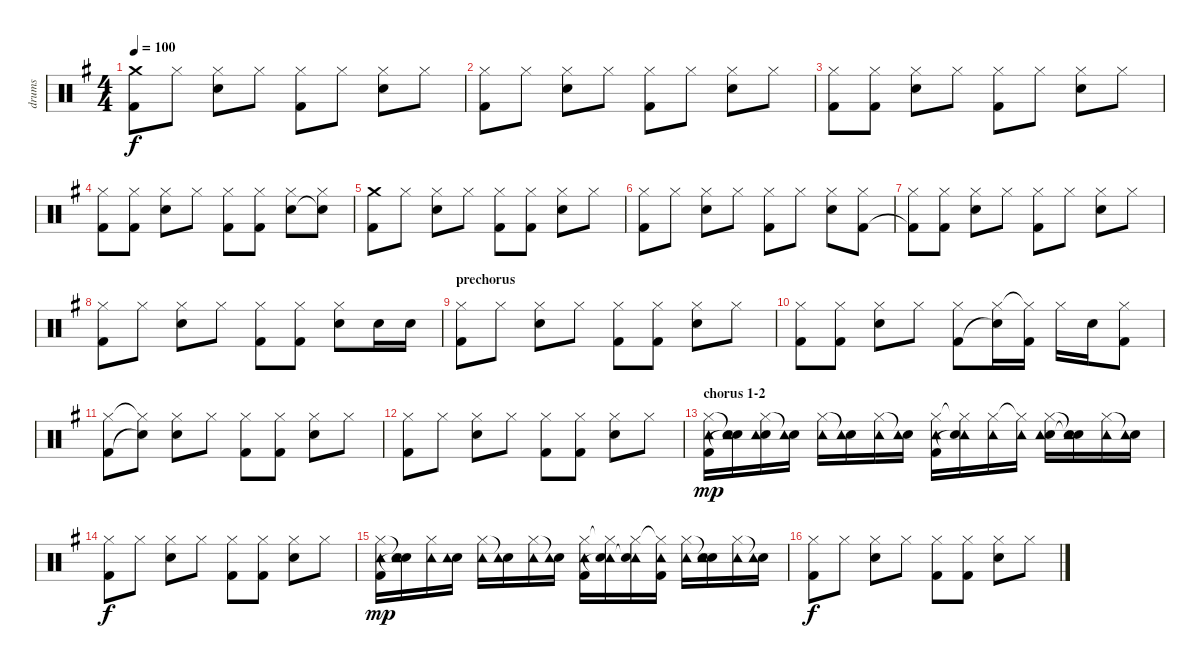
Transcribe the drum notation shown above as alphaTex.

\track ("drums" "drums") {instrument percussion}
\staff {score}
\articulation defaults
\ts (4 4)
\tempo 100
\clef neutral
\ks g
("Crash medium (hit)" "Kick (hit) 2").8{dy f} "Hi-Hat (closed)".8 ("Hi-Hat (closed)" "Snare (hit) 2").8 "Hi-Hat (closed)".8 ("Hi-Hat (closed)" "Kick (hit) 2").8 "Hi-Hat (closed)".8 ("Hi-Hat (closed)" "Snare (hit) 2").8 "Hi-Hat (closed)".8 |
("Hi-Hat (closed)" "Kick (hit) 2").8 "Hi-Hat (closed)".8 ("Hi-Hat (closed)" "Snare (hit) 2").8 "Hi-Hat (closed)".8 ("Hi-Hat (closed)" "Kick (hit) 2").8 "Hi-Hat (closed)".8 ("Hi-Hat (closed)" "Snare (hit) 2").8 "Hi-Hat (closed)".8 |
("Hi-Hat (closed)" "Kick (hit) 2").8 ("Hi-Hat (closed)" "Kick (hit) 2").8 ("Hi-Hat (closed)" "Snare (hit) 2").8 "Hi-Hat (closed)".8 ("Hi-Hat (closed)" "Kick (hit) 2").8 "Hi-Hat (closed)".8 ("Hi-Hat (closed)" "Snare (hit) 2").8 "Hi-Hat (closed)".8 |
("Hi-Hat (closed)" "Kick (hit) 2").8 ("Hi-Hat (closed)" "Kick (hit) 2").8 ("Hi-Hat (closed)" "Snare (hit) 2").8 "Hi-Hat (closed)".8 ("Hi-Hat (closed)" "Kick (hit) 2").8 ("Hi-Hat (closed)" "Kick (hit) 2").8 ("Hi-Hat (closed)" "Snare (hit) 2").8 ("Hi-Hat (closed)" "Snare (hit)"{t}).8 |
("Crash medium (hit)" "Kick (hit) 2").8 "Hi-Hat (closed)".8 ("Hi-Hat (closed)" "Snare (hit) 2").8 "Hi-Hat (closed)".8 ("Hi-Hat (closed)" "Kick (hit) 2").8 ("Hi-Hat (closed)" "Kick (hit) 2").8 ("Hi-Hat (closed)" "Snare (hit) 2").8 "Hi-Hat (closed)".8 |
("Hi-Hat (closed)" "Kick (hit) 2").8 "Hi-Hat (closed)".8 ("Hi-Hat (closed)" "Snare (hit) 2").8 "Hi-Hat (closed)".8 ("Hi-Hat (closed)" "Kick (hit) 2").8 "Hi-Hat (closed)".8 ("Hi-Hat (closed)" "Snare (hit) 2").8 ("Hi-Hat (closed)" "Kick (hit) 2").8 |
("Hi-Hat (closed)" "Kick (hit) 2"{t}).8 ("Hi-Hat (closed)" "Kick (hit) 2").8 ("Hi-Hat (closed)" "Snare (hit) 2").8 "Hi-Hat (closed)".8 ("Hi-Hat (closed)" "Kick (hit) 2").8 "Hi-Hat (closed)".8 ("Hi-Hat (closed)" "Snare (hit) 2").8 "Hi-Hat (closed)".8 |
("Hi-Hat (closed)" "Kick (hit) 2").8 "Hi-Hat (closed)".8 ("Hi-Hat (closed)" "Snare (hit) 2").8 "Hi-Hat (closed)".8 ("Hi-Hat (closed)" "Kick (hit) 2").8 ("Hi-Hat (closed)" "Kick (hit) 2").8 ("Hi-Hat (closed)" "Snare (hit) 2").8 "Snare (hit) 2".16 "Snare (hit) 2".16 |
\section ("" "prechorus")
("Hi-Hat (closed)" "Kick (hit) 2").8 "Hi-Hat (closed)".8 ("Hi-Hat (closed)" "Snare (hit) 2").8 "Hi-Hat (closed)".8 ("Hi-Hat (closed)" "Kick (hit) 2").8 ("Hi-Hat (closed)" "Kick (hit) 2").8 ("Hi-Hat (closed)" "Snare (hit) 2").8 "Hi-Hat (closed)".8 |
("Hi-Hat (closed)" "Kick (hit) 2").8 ("Hi-Hat (closed)" "Kick (hit) 2").8 ("Hi-Hat (closed)" "Snare (hit) 2").8 "Hi-Hat (closed)".8 ("Hi-Hat (closed)" "Kick (hit) 2").8 ("Hi-Hat (closed)" "Snare (hit)"{t}).16 ("Hi-Hat (closed)"{t} "Kick (hit) 2").16 "Hi-Hat (closed)".16 "Snare (hit) 2".16 ("Hi-Hat (closed)" "Kick (hit) 2").8 |
("Hi-Hat (closed)" "Kick (hit) 2").8 ("Hi-Hat (closed)"{t} "Snare (hit)"{t}).8 ("Hi-Hat (closed)" "Snare (hit) 2").8 "Hi-Hat (closed)".8 ("Hi-Hat (closed)" "Kick (hit) 2").8 ("Hi-Hat (closed)" "Kick (hit) 2").8 ("Hi-Hat (closed)" "Snare (hit) 2").8 "Hi-Hat (closed)".8 |
("Hi-Hat (closed)" "Kick (hit) 2").8 "Hi-Hat (closed)".8 ("Hi-Hat (closed)" "Snare (hit) 2").8 "Hi-Hat (closed)".8 ("Hi-Hat (closed)" "Kick (hit) 2").8 ("Hi-Hat (closed)" "Kick (hit) 2").8 ("Hi-Hat (closed)" "Snare (hit) 2").8 "Hi-Hat (closed)".8 |
\section ("" "chorus 1-2")
("Hi-Hat (closed)" "Tambourine (hit)" "Kick (hit) 2").16{dy mp} ("Snare (hit)"{t} "Tambourine (hit)" "Snare (hit)"{t}).16 ("Hi-Hat (closed)" "Snare (hit) 2" "Tambourine (hit)").16 ("Snare (hit) 2"{t} "Tambourine (hit)").16 ("Hi-Hat (closed)" "Tambourine (hit)").16 ("Snare (hit)"{t} "Tambourine (hit)").16 ("Hi-Hat (closed)" "Tambourine (hit)").16 ("Snare (hit)"{t} "Tambourine (hit)").16 ("Hi-Hat (closed)" "Tambourine (hit)" "Kick (hit) 2").16 ("Hi-Hat (closed)"{t} "Tambourine (hit)" "Snare (hit)"{t}).16 ("Hi-Hat (closed)" "Tambourine (hit)").16 ("Hi-Hat (closed)"{t} "Tambourine (hit)").16 ("Hi-Hat (closed)" "Snare (hit) 2" "Tambourine (hit)").16 ("Snare (hit)"{t} "Snare (hit)"{t} "Tambourine (hit)").16 ("Hi-Hat (closed)" "Tambourine (hit)").16 ("Snare (hit)"{t} "Tambourine (hit)").16 |
("Hi-Hat (closed)" "Kick (hit) 2").8{dy f} "Hi-Hat (closed)".8 ("Hi-Hat (closed)" "Snare (hit) 2").8 "Hi-Hat (closed)".8 ("Hi-Hat (closed)" "Kick (hit) 2").8 ("Hi-Hat (closed)" "Kick (hit) 2").8 ("Hi-Hat (closed)" "Snare (hit) 2").8 "Hi-Hat (closed)".8 |
("Hi-Hat (closed)" "Tambourine (hit)" "Kick (hit) 2").16{dy mp} ("Snare (hit)"{t} "Tambourine (hit)" "Snare (hit)"{t}).16 ("Hi-Hat (closed)" "Tambourine (hit)").16 ("Snare (hit) 2" "Tambourine (hit)").16 ("Hi-Hat (closed)" "Tambourine (hit)").16 ("Snare (hit)"{t} "Tambourine (hit)").16 ("Hi-Hat (closed)" "Tambourine (hit)").16 ("Snare (hit)"{t} "Tambourine (hit)").16 ("Hi-Hat (closed)" "Tambourine (hit)" "Kick (hit) 2").16 ("Hi-Hat (closed)"{t} "Tambourine (hit)" "Snare (hit)"{t}).16 ("Hi-Hat (closed)" "Tambourine (hit)" "Snare (hit)"{t}).16 ("Hi-Hat (closed)"{t} "Tambourine (hit)" "Kick (hit) 2").16 ("Hi-Hat (closed)" "Tambourine (hit)").16 ("Snare (hit)"{t} "Snare (hit) 2" "Tambourine (hit)").16 ("Hi-Hat (closed)" "Tambourine (hit)").16 ("Snare (hit)"{t} "Tambourine (hit)").16 |
("Hi-Hat (closed)" "Kick (hit) 2").8{dy f} "Hi-Hat (closed)".8 ("Hi-Hat (closed)" "Snare (hit) 2").8 "Hi-Hat (closed)".8 ("Hi-Hat (closed)" "Kick (hit) 2").8 ("Hi-Hat (closed)" "Kick (hit) 2").8 ("Hi-Hat (closed)" "Snare (hit) 2").8 "Hi-Hat (closed)".8
